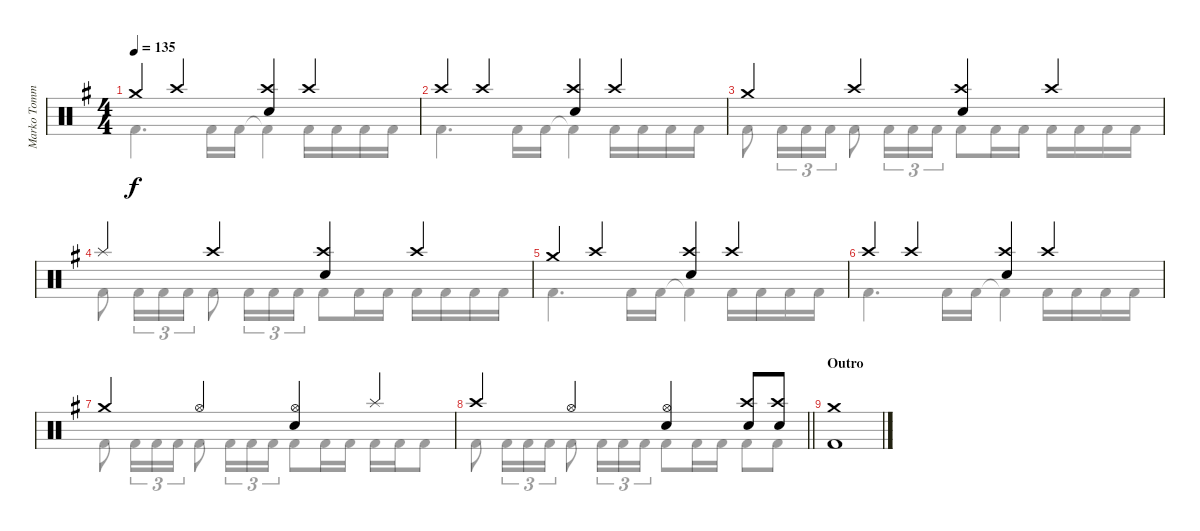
\track ("Marko Tommila (drums)" "Marko Tomm") {instrument percussion}
\staff {score}
\articulation defaults
\voice
\ts (4 4)
\tempo 135
\clef neutral
\ks eminor "Crash medium (hit)".4{dy f} "Crash high (hit)".4
("Crash high (hit)" "Electric Snare (hit)").4 "Crash high (hit)".4 |
"Crash high (hit)".4 "Crash high (hit)".4 ("Crash high (hit)" "Electric Snare (hit)").4 "Crash high (hit)".4 |
"Crash medium (hit)".4 "Crash high (hit)".4 ("Crash high (hit)" "Electric Snare (hit)").4 "Crash high (hit)".4 |
"Splash (hit)".4 "Crash high (hit)".4 ("Crash high (hit)" "Electric Snare (hit)").4 "Crash high (hit)".4 |
"Crash medium (hit)".4 "Crash high (hit)".4 ("Crash high (hit)" "Electric Snare (hit)").4 "Crash high (hit)".4 |
"Crash high (hit)".4 "Crash high (hit)".4 ("Crash high (hit)" "Electric Snare (hit)").4 "Crash high (hit)".4 |
"Crash medium (hit)".4 "Hi-Hat (open)".4 ("Hi-Hat (open)" "Electric Snare (hit)").4 "Splash (hit)".4 |
\barLineRight lightlight "Crash high (hit)".4 "Hi-Hat (open)".4
("Hi-Hat (open)" "Electric Snare (hit)").4 ("Crash high (hit)" "Electric Snare (hit)").8 ("Crash high (hit)" "Electric Snare (hit)").8 |
\section ("" "Outro")
("Crash medium (hit)" "Kick (hit) 2").1 |
|
|
|
|
|
|
\voice
\clef neutral
\ottava regular
\simile none
\ks eminor "Kick (hit) 2".4{d dy f} "Kick (hit) 2".16 "Kick (hit) 2".16 "Kick (hit) 2"{t}.4 "Kick (hit) 2".16 "Kick (hit) 2".16 "Kick (hit) 2".16 "Kick (hit) 2".16
|
"Kick (hit) 2".4{d} "Kick (hit) 2".16 "Kick (hit) 2".16 "Kick (hit) 2"{t}.4 "Kick (hit) 2".16 "Kick (hit) 2".16 "Kick (hit) 2".16 "Kick (hit) 2".16 |
"Kick (hit) 2".8 "Kick (hit) 2".16{tu (3 2)} "Kick (hit) 2".16{tu (3 2)} "Kick (hit) 2".16{tu (3 2)} "Kick (hit) 2".8 "Kick (hit) 2".16{tu (3 2)} "Kick (hit) 2".16{tu (3 2)} "Kick (hit) 2".16{tu (3 2)} "Kick (hit) 2".8 "Kick (hit) 2".16 "Kick (hit) 2".16 "Kick (hit) 2".16 "Kick (hit) 2".16 "Kick (hit) 2".16 "Kick (hit) 2".16 |
"Kick (hit) 2".8 "Kick (hit) 2".16{tu (3 2)} "Kick (hit) 2".16{tu (3 2)} "Kick (hit) 2".16{tu (3 2)} "Kick (hit) 2".8 "Kick (hit) 2".16{tu (3 2)} "Kick (hit) 2".16{tu (3 2)} "Kick (hit) 2".16{tu (3 2)} "Kick (hit) 2".8 "Kick (hit) 2".16 "Kick (hit) 2".16 "Kick (hit) 2".16 "Kick (hit) 2".16 "Kick (hit) 2".16 "Kick (hit) 2".16 |
"Kick (hit) 2".4{d} "Kick (hit) 2".16 "Kick (hit) 2".16 "Kick (hit) 2"{t}.4 "Kick (hit) 2".16 "Kick (hit) 2".16 "Kick (hit) 2".16 "Kick (hit) 2".16 |
"Kick (hit) 2".4{d} "Kick (hit) 2".16 "Kick (hit) 2".16 "Kick (hit) 2"{t}.4 "Kick (hit) 2".16 "Kick (hit) 2".16 "Kick (hit) 2".16 "Kick (hit) 2".16 |
"Kick (hit) 2".8 "Kick (hit) 2".16{tu (3 2)} "Kick (hit) 2".16{tu (3 2)} "Kick (hit) 2".16{tu (3 2)} "Kick (hit) 2".8 "Kick (hit) 2".16{tu (3 2)} "Kick (hit) 2".16{tu (3 2)} "Kick (hit) 2".16{tu (3 2)} "Kick (hit) 2".8 "Kick (hit) 2".16 "Kick (hit) 2".16 "Kick (hit) 2".16 "Kick (hit) 2".16 "Kick (hit) 2".8 |
\barLineRight lightlight "Kick (hit) 2".8 "Kick (hit) 2".16{tu (3 2)} "Kick (hit) 2".16{tu (3 2)} "Kick (hit) 2".16{tu (3 2)} "Kick (hit) 2".8 "Kick (hit) 2".16{tu (3 2)} "Kick (hit) 2".16{tu (3 2)} "Kick (hit) 2".16{tu (3 2)} "Kick (hit) 2".8 "Kick (hit) 2".16 "Kick (hit) 2".16 "Kick (hit) 2".8 "Kick (hit) 2".8
|
|
|
|
|
|
|
|
